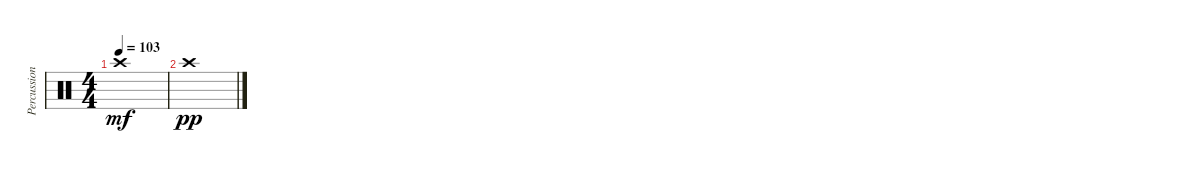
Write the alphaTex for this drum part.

\track ("Percussion" "Percussion") {instrument percussion}
\staff {score}
\articulation defaults
\ts (4 4)
\tempo 103
\clef neutral
\ks c "Crash high (hit)".1{dy mf}
|
"Crash high (hit)".1{dy pp}
